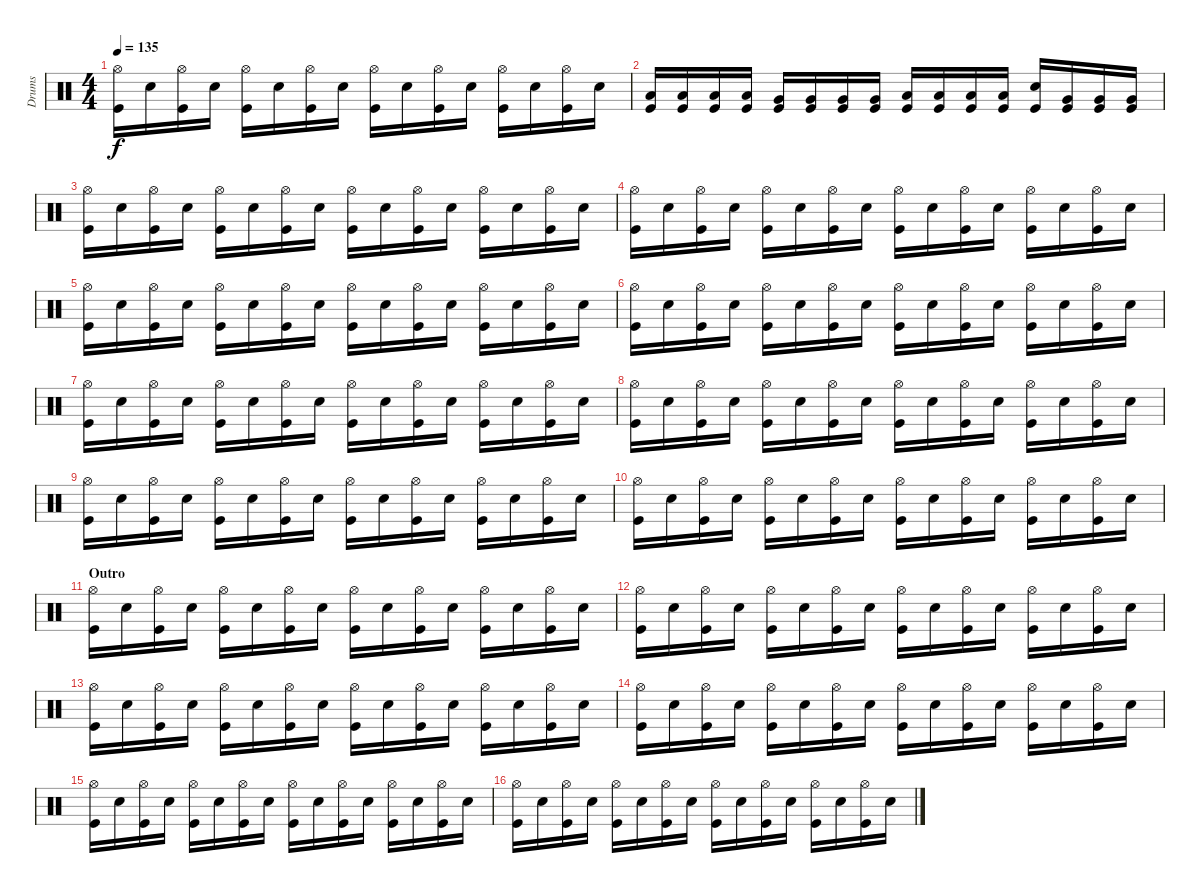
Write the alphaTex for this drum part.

\track ("Drums" "Drums") {instrument percussion}
\staff {score}
\articulation defaults
\ts (4 4)
\tempo 135
\clef neutral
\ks c
("Hi-Hat (open)" "Kick (hit)").16{dy f} "Snare (hit) 2".16 ("Hi-Hat (open)" "Kick (hit)").16 "Snare (hit) 2".16 ("Hi-Hat (open)" "Kick (hit)").16 "Snare (hit) 2".16 ("Hi-Hat (open)" "Kick (hit)").16 "Snare (hit) 2".16 ("Hi-Hat (open)" "Kick (hit)").16 "Snare (hit) 2".16 ("Hi-Hat (open)" "Kick (hit)").16 "Snare (hit) 2".16 ("Hi-Hat (open)" "Kick (hit)").16 "Snare (hit) 2".16 ("Hi-Hat (open)" "Kick (hit)").16 "Snare (hit) 2".16 |
("Low Tom (hit)" "Kick (hit)").16 ("Low Tom (hit)" "Kick (hit)").16 ("Low Tom (hit)" "Kick (hit)").16 ("Low Tom (hit)" "Kick (hit)").16 ("Very Low Tom (hit)" "Kick (hit)").16 ("Very Low Tom (hit)" "Kick (hit)").16 ("Very Low Tom (hit)" "Kick (hit)").16 ("Very Low Tom (hit)" "Kick (hit)").16 ("Low Floor Tom (hit)" "Kick (hit)").16 ("Low Floor Tom (hit)" "Kick (hit)").16 ("Low Floor Tom (hit)" "Kick (hit)").16 ("Low Floor Tom (hit)" "Kick (hit)").16 ("Electric Snare (hit)" "Kick (hit)").16 ("Very Low Tom (hit)" "Kick (hit)").16 ("Very Low Tom (hit)" "Kick (hit)").16 ("Very Low Tom (hit)" "Kick (hit)").16 |
("Hi-Hat (open)" "Kick (hit)").16 "Snare (hit) 2".16 ("Hi-Hat (open)" "Kick (hit)").16 "Snare (hit) 2".16 ("Hi-Hat (open)" "Kick (hit)").16 "Snare (hit) 2".16 ("Hi-Hat (open)" "Kick (hit)").16 "Snare (hit) 2".16 ("Hi-Hat (open)" "Kick (hit)").16 "Snare (hit) 2".16 ("Hi-Hat (open)" "Kick (hit)").16 "Snare (hit) 2".16 ("Hi-Hat (open)" "Kick (hit)").16 "Snare (hit) 2".16 ("Hi-Hat (open)" "Kick (hit)").16 "Snare (hit) 2".16 |
("Hi-Hat (open)" "Kick (hit)").16 "Snare (hit) 2".16 ("Hi-Hat (open)" "Kick (hit)").16 "Snare (hit) 2".16 ("Hi-Hat (open)" "Kick (hit)").16 "Snare (hit) 2".16 ("Hi-Hat (open)" "Kick (hit)").16 "Snare (hit) 2".16 ("Hi-Hat (open)" "Kick (hit)").16 "Snare (hit) 2".16 ("Hi-Hat (open)" "Kick (hit)").16 "Snare (hit) 2".16 ("Hi-Hat (open)" "Kick (hit)").16 "Snare (hit) 2".16 ("Hi-Hat (open)" "Kick (hit)").16 "Snare (hit) 2".16 |
("Hi-Hat (open)" "Kick (hit)").16 "Snare (hit) 2".16 ("Hi-Hat (open)" "Kick (hit)").16 "Snare (hit) 2".16 ("Hi-Hat (open)" "Kick (hit)").16 "Snare (hit) 2".16 ("Hi-Hat (open)" "Kick (hit)").16 "Snare (hit) 2".16 ("Hi-Hat (open)" "Kick (hit)").16 "Snare (hit) 2".16 ("Hi-Hat (open)" "Kick (hit)").16 "Snare (hit) 2".16 ("Hi-Hat (open)" "Kick (hit)").16 "Snare (hit) 2".16 ("Hi-Hat (open)" "Kick (hit)").16 "Snare (hit) 2".16 |
("Hi-Hat (open)" "Kick (hit)").16 "Snare (hit) 2".16 ("Hi-Hat (open)" "Kick (hit)").16 "Snare (hit) 2".16 ("Hi-Hat (open)" "Kick (hit)").16 "Snare (hit) 2".16 ("Hi-Hat (open)" "Kick (hit)").16 "Snare (hit) 2".16 ("Hi-Hat (open)" "Kick (hit)").16 "Snare (hit) 2".16 ("Hi-Hat (open)" "Kick (hit)").16 "Snare (hit) 2".16 ("Hi-Hat (open)" "Kick (hit)").16 "Snare (hit) 2".16 ("Hi-Hat (open)" "Kick (hit)").16 "Snare (hit) 2".16 |
("Hi-Hat (open)" "Kick (hit)").16 "Snare (hit) 2".16 ("Hi-Hat (open)" "Kick (hit)").16 "Snare (hit) 2".16 ("Hi-Hat (open)" "Kick (hit)").16 "Snare (hit) 2".16 ("Hi-Hat (open)" "Kick (hit)").16 "Snare (hit) 2".16 ("Hi-Hat (open)" "Kick (hit)").16 "Snare (hit) 2".16 ("Hi-Hat (open)" "Kick (hit)").16 "Snare (hit) 2".16 ("Hi-Hat (open)" "Kick (hit)").16 "Snare (hit) 2".16 ("Hi-Hat (open)" "Kick (hit)").16 "Snare (hit) 2".16 |
("Hi-Hat (open)" "Kick (hit)").16 "Snare (hit) 2".16 ("Hi-Hat (open)" "Kick (hit)").16 "Snare (hit) 2".16 ("Hi-Hat (open)" "Kick (hit)").16 "Snare (hit) 2".16 ("Hi-Hat (open)" "Kick (hit)").16 "Snare (hit) 2".16 ("Hi-Hat (open)" "Kick (hit)").16 "Snare (hit) 2".16 ("Hi-Hat (open)" "Kick (hit)").16 "Snare (hit) 2".16 ("Hi-Hat (open)" "Kick (hit)").16 "Snare (hit) 2".16 ("Hi-Hat (open)" "Kick (hit)").16 "Snare (hit) 2".16 |
("Hi-Hat (open)" "Kick (hit)").16 "Snare (hit) 2".16 ("Hi-Hat (open)" "Kick (hit)").16 "Snare (hit) 2".16 ("Hi-Hat (open)" "Kick (hit)").16 "Snare (hit) 2".16 ("Hi-Hat (open)" "Kick (hit)").16 "Snare (hit) 2".16 ("Hi-Hat (open)" "Kick (hit)").16 "Snare (hit) 2".16 ("Hi-Hat (open)" "Kick (hit)").16 "Snare (hit) 2".16 ("Hi-Hat (open)" "Kick (hit)").16 "Snare (hit) 2".16 ("Hi-Hat (open)" "Kick (hit)").16 "Snare (hit) 2".16 |
("Hi-Hat (open)" "Kick (hit)").16 "Snare (hit) 2".16 ("Hi-Hat (open)" "Kick (hit)").16 "Snare (hit) 2".16 ("Hi-Hat (open)" "Kick (hit)").16 "Snare (hit) 2".16 ("Hi-Hat (open)" "Kick (hit)").16 "Snare (hit) 2".16 ("Hi-Hat (open)" "Kick (hit)").16 "Snare (hit) 2".16 ("Hi-Hat (open)" "Kick (hit)").16 "Snare (hit) 2".16 ("Hi-Hat (open)" "Kick (hit)").16 "Snare (hit) 2".16 ("Hi-Hat (open)" "Kick (hit)").16 "Snare (hit) 2".16 |
\section ("" "Outro")
("Hi-Hat (open)" "Kick (hit)").16 "Snare (hit) 2".16 ("Hi-Hat (open)" "Kick (hit)").16 "Snare (hit) 2".16 ("Hi-Hat (open)" "Kick (hit)").16 "Snare (hit) 2".16 ("Hi-Hat (open)" "Kick (hit)").16 "Snare (hit) 2".16 ("Hi-Hat (open)" "Kick (hit)").16 "Snare (hit) 2".16 ("Hi-Hat (open)" "Kick (hit)").16 "Snare (hit) 2".16 ("Hi-Hat (open)" "Kick (hit)").16 "Snare (hit) 2".16 ("Hi-Hat (open)" "Kick (hit)").16 "Snare (hit) 2".16 |
("Hi-Hat (open)" "Kick (hit)").16 "Snare (hit) 2".16 ("Hi-Hat (open)" "Kick (hit)").16 "Snare (hit) 2".16 ("Hi-Hat (open)" "Kick (hit)").16 "Snare (hit) 2".16 ("Hi-Hat (open)" "Kick (hit)").16 "Snare (hit) 2".16 ("Hi-Hat (open)" "Kick (hit)").16 "Snare (hit) 2".16 ("Hi-Hat (open)" "Kick (hit)").16 "Snare (hit) 2".16 ("Hi-Hat (open)" "Kick (hit)").16 "Snare (hit) 2".16 ("Hi-Hat (open)" "Kick (hit)").16 "Snare (hit) 2".16 |
("Hi-Hat (open)" "Kick (hit)").16 "Snare (hit) 2".16 ("Hi-Hat (open)" "Kick (hit)").16 "Snare (hit) 2".16 ("Hi-Hat (open)" "Kick (hit)").16 "Snare (hit) 2".16 ("Hi-Hat (open)" "Kick (hit)").16 "Snare (hit) 2".16 ("Hi-Hat (open)" "Kick (hit)").16 "Snare (hit) 2".16 ("Hi-Hat (open)" "Kick (hit)").16 "Snare (hit) 2".16 ("Hi-Hat (open)" "Kick (hit)").16 "Snare (hit) 2".16 ("Hi-Hat (open)" "Kick (hit)").16 "Snare (hit) 2".16 |
("Hi-Hat (open)" "Kick (hit)").16 "Snare (hit) 2".16 ("Hi-Hat (open)" "Kick (hit)").16 "Snare (hit) 2".16 ("Hi-Hat (open)" "Kick (hit)").16 "Snare (hit) 2".16 ("Hi-Hat (open)" "Kick (hit)").16 "Snare (hit) 2".16 ("Hi-Hat (open)" "Kick (hit)").16 "Snare (hit) 2".16 ("Hi-Hat (open)" "Kick (hit)").16 "Snare (hit) 2".16 ("Hi-Hat (open)" "Kick (hit)").16 "Snare (hit) 2".16 ("Hi-Hat (open)" "Kick (hit)").16 "Snare (hit) 2".16 |
("Hi-Hat (open)" "Kick (hit)").16 "Snare (hit) 2".16 ("Hi-Hat (open)" "Kick (hit)").16 "Snare (hit) 2".16 ("Hi-Hat (open)" "Kick (hit)").16 "Snare (hit) 2".16 ("Hi-Hat (open)" "Kick (hit)").16 "Snare (hit) 2".16 ("Hi-Hat (open)" "Kick (hit)").16 "Snare (hit) 2".16 ("Hi-Hat (open)" "Kick (hit)").16 "Snare (hit) 2".16 ("Hi-Hat (open)" "Kick (hit)").16 "Snare (hit) 2".16 ("Hi-Hat (open)" "Kick (hit)").16 "Snare (hit) 2".16 |
("Hi-Hat (open)" "Kick (hit)").16 "Snare (hit) 2".16 ("Hi-Hat (open)" "Kick (hit)").16 "Snare (hit) 2".16 ("Hi-Hat (open)" "Kick (hit)").16 "Snare (hit) 2".16 ("Hi-Hat (open)" "Kick (hit)").16 "Snare (hit) 2".16 ("Hi-Hat (open)" "Kick (hit)").16 "Snare (hit) 2".16 ("Hi-Hat (open)" "Kick (hit)").16 "Snare (hit) 2".16 ("Hi-Hat (open)" "Kick (hit)").16 "Snare (hit) 2".16 ("Hi-Hat (open)" "Kick (hit)").16 "Snare (hit) 2".16
